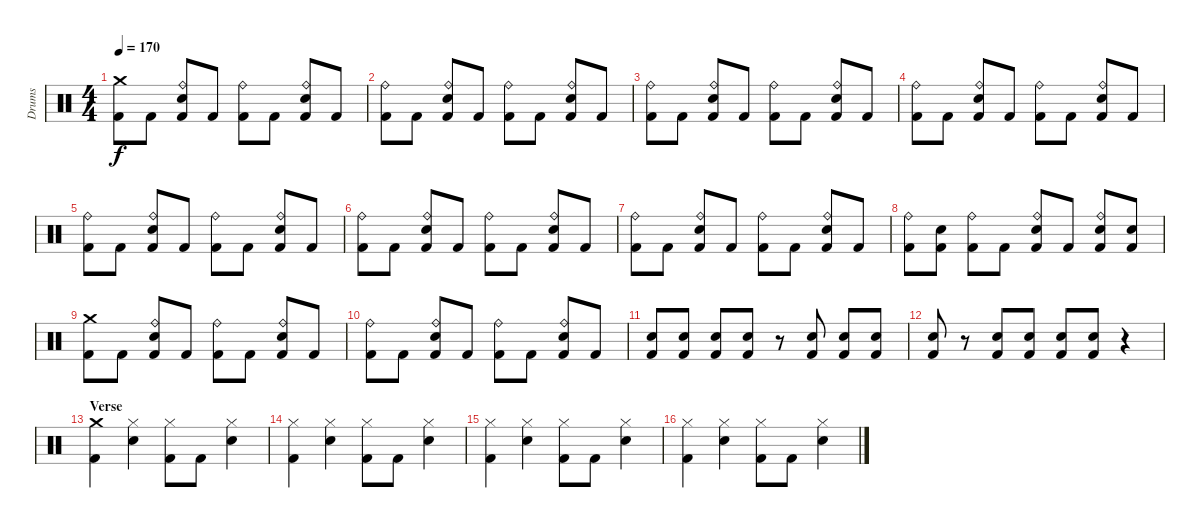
\track ("Drums" "Drums") {instrument percussion}
\staff {score}
\articulation defaults
\ts (4 4)
\tempo 170
\clef neutral
\ks c
("Crash medium (hit)" "Kick (hit) 2").8{dy f} "Kick (hit) 2".8 ("Ride (bell)" "Electric Snare (hit)" "Kick (hit) 2").8 "Kick (hit) 2".8 ("Ride (bell)" "Kick (hit) 2").8 "Kick (hit) 2".8 ("Ride (bell)" "Electric Snare (hit)" "Kick (hit) 2").8 "Kick (hit) 2".8 |
("Ride (bell)" "Kick (hit) 2").8 "Kick (hit) 2".8 ("Ride (bell)" "Electric Snare (hit)" "Kick (hit) 2").8 "Kick (hit) 2".8 ("Ride (bell)" "Kick (hit) 2").8 "Kick (hit) 2".8 ("Ride (bell)" "Electric Snare (hit)" "Kick (hit) 2").8 "Kick (hit) 2".8 |
("Ride (bell)" "Kick (hit) 2").8 "Kick (hit) 2".8 ("Ride (bell)" "Electric Snare (hit)" "Kick (hit) 2").8 "Kick (hit) 2".8 ("Ride (bell)" "Kick (hit) 2").8 "Kick (hit) 2".8 ("Ride (bell)" "Electric Snare (hit)" "Kick (hit) 2").8 "Kick (hit) 2".8 |
("Ride (bell)" "Kick (hit) 2").8 "Kick (hit) 2".8 ("Ride (bell)" "Electric Snare (hit)" "Kick (hit) 2").8 "Kick (hit) 2".8 ("Ride (bell)" "Kick (hit) 2").8 "Kick (hit) 2".8 ("Ride (bell)" "Electric Snare (hit)" "Kick (hit) 2").8 "Kick (hit) 2".8 |
("Ride (bell)" "Kick (hit) 2").8 "Kick (hit) 2".8 ("Ride (bell)" "Electric Snare (hit)" "Kick (hit) 2").8 "Kick (hit) 2".8 ("Ride (bell)" "Kick (hit) 2").8 "Kick (hit) 2".8 ("Ride (bell)" "Electric Snare (hit)" "Kick (hit) 2").8 "Kick (hit) 2".8 |
("Ride (bell)" "Kick (hit) 2").8 "Kick (hit) 2".8 ("Ride (bell)" "Electric Snare (hit)" "Kick (hit) 2").8 "Kick (hit) 2".8 ("Ride (bell)" "Kick (hit) 2").8 "Kick (hit) 2".8 ("Ride (bell)" "Electric Snare (hit)" "Kick (hit) 2").8 "Kick (hit) 2".8 |
("Ride (bell)" "Kick (hit) 2").8 "Kick (hit) 2".8 ("Ride (bell)" "Electric Snare (hit)" "Kick (hit) 2").8 "Kick (hit) 2".8 ("Ride (bell)" "Kick (hit) 2").8 "Kick (hit) 2".8 ("Ride (bell)" "Electric Snare (hit)" "Kick (hit) 2").8 "Kick (hit) 2".8 |
("Ride (bell)" "Kick (hit) 2").8 ("Electric Snare (hit)" "Kick (hit) 2").8 ("Ride (bell)" "Kick (hit) 2").8 "Kick (hit) 2".8 ("Ride (bell)" "Electric Snare (hit)" "Kick (hit) 2").8 "Kick (hit) 2".8 ("Ride (bell)" "Electric Snare (hit)" "Kick (hit) 2").8 ("Electric Snare (hit)" "Kick (hit) 2").8 |
("Crash medium (hit)" "Kick (hit) 2").8 "Kick (hit) 2".8 ("Ride (bell)" "Electric Snare (hit)" "Kick (hit) 2").8 "Kick (hit) 2".8 ("Ride (bell)" "Kick (hit) 2").8 "Kick (hit) 2".8 ("Ride (bell)" "Electric Snare (hit)" "Kick (hit) 2").8 "Kick (hit) 2".8 |
("Ride (bell)" "Kick (hit) 2").8 "Kick (hit) 2".8 ("Ride (bell)" "Electric Snare (hit)" "Kick (hit) 2").8 "Kick (hit) 2".8 ("Ride (bell)" "Kick (hit) 2").8 "Kick (hit) 2".8 ("Ride (bell)" "Electric Snare (hit)" "Kick (hit) 2").8 "Kick (hit) 2".8 |
("Electric Snare (hit)" "Kick (hit) 2").8 ("Electric Snare (hit)" "Kick (hit) 2").8 ("Electric Snare (hit)" "Kick (hit) 2").8 ("Electric Snare (hit)" "Kick (hit) 2").8 r.8 ("Electric Snare (hit)" "Kick (hit) 2").8 ("Electric Snare (hit)" "Kick (hit) 2").8 ("Electric Snare (hit)" "Kick (hit) 2").8 |
("Electric Snare (hit)" "Kick (hit) 2").8 r.8 ("Electric Snare (hit)" "Kick (hit) 2").8 ("Electric Snare (hit)" "Kick (hit) 2").8 ("Electric Snare (hit)" "Kick (hit) 2").8 ("Electric Snare (hit)" "Kick (hit) 2").8 r.4 |
\section ("" "Verse")
("Crash medium (hit)" "Kick (hit) 2").4 ("Hi-Hat (closed)" "Electric Snare (hit)").4 ("Hi-Hat (closed)" "Kick (hit) 2").8 "Kick (hit) 2".8 ("Hi-Hat (closed)" "Electric Snare (hit)").4 |
("Hi-Hat (closed)" "Kick (hit) 2").4 ("Hi-Hat (closed)" "Electric Snare (hit)").4 ("Hi-Hat (closed)" "Kick (hit) 2").8 "Kick (hit) 2".8 ("Hi-Hat (closed)" "Electric Snare (hit)").4 |
("Hi-Hat (closed)" "Kick (hit) 2").4 ("Hi-Hat (closed)" "Electric Snare (hit)").4 ("Hi-Hat (closed)" "Kick (hit) 2").8 "Kick (hit) 2".8 ("Hi-Hat (closed)" "Electric Snare (hit)").4 |
("Hi-Hat (closed)" "Kick (hit) 2").4 ("Hi-Hat (closed)" "Electric Snare (hit)").4 ("Hi-Hat (closed)" "Kick (hit) 2").8 "Kick (hit) 2".8 ("Hi-Hat (closed)" "Electric Snare (hit)").4
